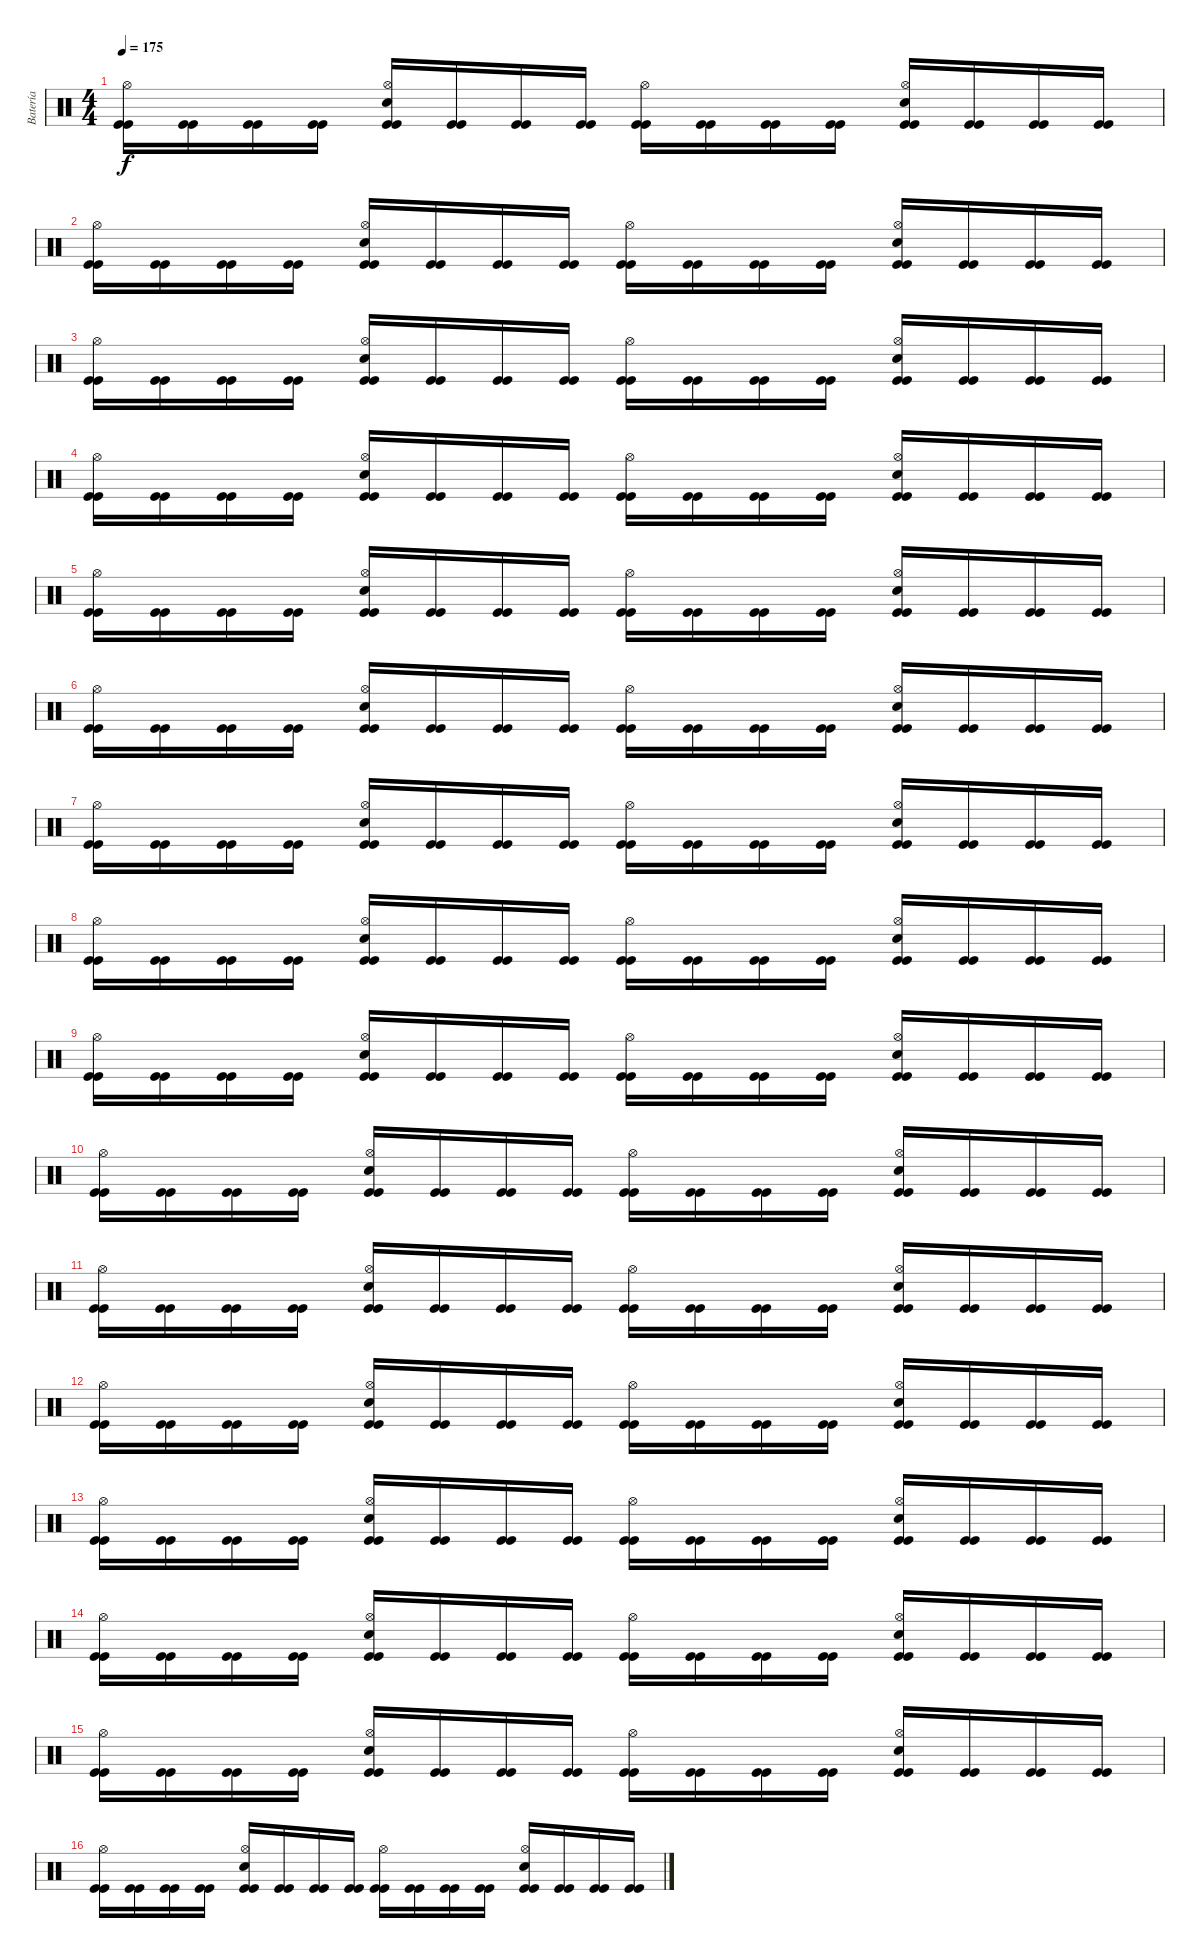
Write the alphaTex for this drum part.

\track ("Batería" "Batería") {instrument percussion}
\staff {score}
\articulation defaults
\ts (4 4)
\tempo 175
\clef neutral
\ks c
("Kick (hit)" "Kick (hit)" "Hi-Hat (open)").16{dy f} ("Kick (hit)" "Kick (hit)").16 ("Kick (hit)" "Kick (hit)").16 ("Kick (hit)" "Kick (hit)").16 ("Kick (hit)" "Kick (hit)" "Snare (hit) 2" "Hi-Hat (open)").16 ("Kick (hit)" "Kick (hit)").16 ("Kick (hit)" "Kick (hit)").16 ("Kick (hit)" "Kick (hit)").16 ("Kick (hit)" "Kick (hit)" "Hi-Hat (open)").16 ("Kick (hit)" "Kick (hit)").16 ("Kick (hit)" "Kick (hit)").16 ("Kick (hit)" "Kick (hit)").16 ("Kick (hit)" "Kick (hit)" "Snare (hit) 2" "Hi-Hat (open)").16 ("Kick (hit)" "Kick (hit)").16 ("Kick (hit)" "Kick (hit)").16 ("Kick (hit)" "Kick (hit)").16 |
("Kick (hit)" "Kick (hit)" "Hi-Hat (open)").16 ("Kick (hit)" "Kick (hit)").16 ("Kick (hit)" "Kick (hit)").16 ("Kick (hit)" "Kick (hit)").16 ("Kick (hit)" "Kick (hit)" "Snare (hit) 2" "Hi-Hat (open)").16 ("Kick (hit)" "Kick (hit)").16 ("Kick (hit)" "Kick (hit)").16 ("Kick (hit)" "Kick (hit)").16 ("Kick (hit)" "Kick (hit)" "Hi-Hat (open)").16 ("Kick (hit)" "Kick (hit)").16 ("Kick (hit)" "Kick (hit)").16 ("Kick (hit)" "Kick (hit)").16 ("Kick (hit)" "Kick (hit)" "Snare (hit) 2" "Hi-Hat (open)").16 ("Kick (hit)" "Kick (hit)").16 ("Kick (hit)" "Kick (hit)").16 ("Kick (hit)" "Kick (hit)").16 |
("Kick (hit)" "Kick (hit)" "Hi-Hat (open)").16 ("Kick (hit)" "Kick (hit)").16 ("Kick (hit)" "Kick (hit)").16 ("Kick (hit)" "Kick (hit)").16 ("Kick (hit)" "Kick (hit)" "Snare (hit) 2" "Hi-Hat (open)").16 ("Kick (hit)" "Kick (hit)").16 ("Kick (hit)" "Kick (hit)").16 ("Kick (hit)" "Kick (hit)").16 ("Kick (hit)" "Kick (hit)" "Hi-Hat (open)").16 ("Kick (hit)" "Kick (hit)").16 ("Kick (hit)" "Kick (hit)").16 ("Kick (hit)" "Kick (hit)").16 ("Kick (hit)" "Kick (hit)" "Snare (hit) 2" "Hi-Hat (open)").16 ("Kick (hit)" "Kick (hit)").16 ("Kick (hit)" "Kick (hit)").16 ("Kick (hit)" "Kick (hit)").16 |
("Kick (hit)" "Kick (hit)" "Hi-Hat (open)").16 ("Kick (hit)" "Kick (hit)").16 ("Kick (hit)" "Kick (hit)").16 ("Kick (hit)" "Kick (hit)").16 ("Kick (hit)" "Kick (hit)" "Snare (hit) 2" "Hi-Hat (open)").16 ("Kick (hit)" "Kick (hit)").16 ("Kick (hit)" "Kick (hit)").16 ("Kick (hit)" "Kick (hit)").16 ("Kick (hit)" "Kick (hit)" "Hi-Hat (open)").16 ("Kick (hit)" "Kick (hit)").16 ("Kick (hit)" "Kick (hit)").16 ("Kick (hit)" "Kick (hit)").16 ("Kick (hit)" "Kick (hit)" "Snare (hit) 2" "Hi-Hat (open)").16 ("Kick (hit)" "Kick (hit)").16 ("Kick (hit)" "Kick (hit)").16 ("Kick (hit)" "Kick (hit)").16 |
("Kick (hit)" "Kick (hit)" "Hi-Hat (open)").16 ("Kick (hit)" "Kick (hit)").16 ("Kick (hit)" "Kick (hit)").16 ("Kick (hit)" "Kick (hit)").16 ("Kick (hit)" "Kick (hit)" "Snare (hit) 2" "Hi-Hat (open)").16 ("Kick (hit)" "Kick (hit)").16 ("Kick (hit)" "Kick (hit)").16 ("Kick (hit)" "Kick (hit)").16 ("Kick (hit)" "Kick (hit)" "Hi-Hat (open)").16 ("Kick (hit)" "Kick (hit)").16 ("Kick (hit)" "Kick (hit)").16 ("Kick (hit)" "Kick (hit)").16 ("Kick (hit)" "Kick (hit)" "Snare (hit) 2" "Hi-Hat (open)").16 ("Kick (hit)" "Kick (hit)").16 ("Kick (hit)" "Kick (hit)").16 ("Kick (hit)" "Kick (hit)").16 |
("Kick (hit)" "Kick (hit)" "Hi-Hat (open)").16 ("Kick (hit)" "Kick (hit)").16 ("Kick (hit)" "Kick (hit)").16 ("Kick (hit)" "Kick (hit)").16 ("Kick (hit)" "Kick (hit)" "Snare (hit) 2" "Hi-Hat (open)").16 ("Kick (hit)" "Kick (hit)").16 ("Kick (hit)" "Kick (hit)").16 ("Kick (hit)" "Kick (hit)").16 ("Kick (hit)" "Kick (hit)" "Hi-Hat (open)").16 ("Kick (hit)" "Kick (hit)").16 ("Kick (hit)" "Kick (hit)").16 ("Kick (hit)" "Kick (hit)").16 ("Kick (hit)" "Kick (hit)" "Snare (hit) 2" "Hi-Hat (open)").16 ("Kick (hit)" "Kick (hit)").16 ("Kick (hit)" "Kick (hit)").16 ("Kick (hit)" "Kick (hit)").16 |
("Kick (hit)" "Kick (hit)" "Hi-Hat (open)").16 ("Kick (hit)" "Kick (hit)").16 ("Kick (hit)" "Kick (hit)").16 ("Kick (hit)" "Kick (hit)").16 ("Kick (hit)" "Kick (hit)" "Snare (hit) 2" "Hi-Hat (open)").16 ("Kick (hit)" "Kick (hit)").16 ("Kick (hit)" "Kick (hit)").16 ("Kick (hit)" "Kick (hit)").16 ("Kick (hit)" "Kick (hit)" "Hi-Hat (open)").16 ("Kick (hit)" "Kick (hit)").16 ("Kick (hit)" "Kick (hit)").16 ("Kick (hit)" "Kick (hit)").16 ("Kick (hit)" "Kick (hit)" "Snare (hit) 2" "Hi-Hat (open)").16 ("Kick (hit)" "Kick (hit)").16 ("Kick (hit)" "Kick (hit)").16 ("Kick (hit)" "Kick (hit)").16 |
("Kick (hit)" "Kick (hit)" "Hi-Hat (open)").16 ("Kick (hit)" "Kick (hit)").16 ("Kick (hit)" "Kick (hit)").16 ("Kick (hit)" "Kick (hit)").16 ("Kick (hit)" "Kick (hit)" "Snare (hit) 2" "Hi-Hat (open)").16 ("Kick (hit)" "Kick (hit)").16 ("Kick (hit)" "Kick (hit)").16 ("Kick (hit)" "Kick (hit)").16 ("Kick (hit)" "Kick (hit)" "Hi-Hat (open)").16 ("Kick (hit)" "Kick (hit)").16 ("Kick (hit)" "Kick (hit)").16 ("Kick (hit)" "Kick (hit)").16 ("Kick (hit)" "Kick (hit)" "Snare (hit) 2" "Hi-Hat (open)").16 ("Kick (hit)" "Kick (hit)").16 ("Kick (hit)" "Kick (hit)").16 ("Kick (hit)" "Kick (hit)").16 |
("Kick (hit)" "Kick (hit)" "Hi-Hat (open)").16 ("Kick (hit)" "Kick (hit)").16 ("Kick (hit)" "Kick (hit)").16 ("Kick (hit)" "Kick (hit)").16 ("Kick (hit)" "Kick (hit)" "Snare (hit) 2" "Hi-Hat (open)").16 ("Kick (hit)" "Kick (hit)").16 ("Kick (hit)" "Kick (hit)").16 ("Kick (hit)" "Kick (hit)").16 ("Kick (hit)" "Kick (hit)" "Hi-Hat (open)").16 ("Kick (hit)" "Kick (hit)").16 ("Kick (hit)" "Kick (hit)").16 ("Kick (hit)" "Kick (hit)").16 ("Kick (hit)" "Kick (hit)" "Snare (hit) 2" "Hi-Hat (open)").16 ("Kick (hit)" "Kick (hit)").16 ("Kick (hit)" "Kick (hit)").16 ("Kick (hit)" "Kick (hit)").16 |
("Kick (hit)" "Kick (hit)" "Hi-Hat (open)").16 ("Kick (hit)" "Kick (hit)").16 ("Kick (hit)" "Kick (hit)").16 ("Kick (hit)" "Kick (hit)").16 ("Kick (hit)" "Kick (hit)" "Snare (hit) 2" "Hi-Hat (open)").16 ("Kick (hit)" "Kick (hit)").16 ("Kick (hit)" "Kick (hit)").16 ("Kick (hit)" "Kick (hit)").16 ("Kick (hit)" "Kick (hit)" "Hi-Hat (open)").16 ("Kick (hit)" "Kick (hit)").16 ("Kick (hit)" "Kick (hit)").16 ("Kick (hit)" "Kick (hit)").16 ("Kick (hit)" "Kick (hit)" "Snare (hit) 2" "Hi-Hat (open)").16 ("Kick (hit)" "Kick (hit)").16 ("Kick (hit)" "Kick (hit)").16 ("Kick (hit)" "Kick (hit)").16 |
("Kick (hit)" "Kick (hit)" "Hi-Hat (open)").16 ("Kick (hit)" "Kick (hit)").16 ("Kick (hit)" "Kick (hit)").16 ("Kick (hit)" "Kick (hit)").16 ("Kick (hit)" "Kick (hit)" "Snare (hit) 2" "Hi-Hat (open)").16 ("Kick (hit)" "Kick (hit)").16 ("Kick (hit)" "Kick (hit)").16 ("Kick (hit)" "Kick (hit)").16 ("Kick (hit)" "Kick (hit)" "Hi-Hat (open)").16 ("Kick (hit)" "Kick (hit)").16 ("Kick (hit)" "Kick (hit)").16 ("Kick (hit)" "Kick (hit)").16 ("Kick (hit)" "Kick (hit)" "Snare (hit) 2" "Hi-Hat (open)").16 ("Kick (hit)" "Kick (hit)").16 ("Kick (hit)" "Kick (hit)").16 ("Kick (hit)" "Kick (hit)").16 |
("Kick (hit)" "Kick (hit)" "Hi-Hat (open)").16 ("Kick (hit)" "Kick (hit)").16 ("Kick (hit)" "Kick (hit)").16 ("Kick (hit)" "Kick (hit)").16 ("Kick (hit)" "Kick (hit)" "Snare (hit) 2" "Hi-Hat (open)").16 ("Kick (hit)" "Kick (hit)").16 ("Kick (hit)" "Kick (hit)").16 ("Kick (hit)" "Kick (hit)").16 ("Kick (hit)" "Kick (hit)" "Hi-Hat (open)").16 ("Kick (hit)" "Kick (hit)").16 ("Kick (hit)" "Kick (hit)").16 ("Kick (hit)" "Kick (hit)").16 ("Kick (hit)" "Kick (hit)" "Snare (hit) 2" "Hi-Hat (open)").16 ("Kick (hit)" "Kick (hit)").16 ("Kick (hit)" "Kick (hit)").16 ("Kick (hit)" "Kick (hit)").16 |
("Kick (hit)" "Kick (hit)" "Hi-Hat (open)").16 ("Kick (hit)" "Kick (hit)").16 ("Kick (hit)" "Kick (hit)").16 ("Kick (hit)" "Kick (hit)").16 ("Kick (hit)" "Kick (hit)" "Snare (hit) 2" "Hi-Hat (open)").16 ("Kick (hit)" "Kick (hit)").16 ("Kick (hit)" "Kick (hit)").16 ("Kick (hit)" "Kick (hit)").16 ("Kick (hit)" "Kick (hit)" "Hi-Hat (open)").16 ("Kick (hit)" "Kick (hit)").16 ("Kick (hit)" "Kick (hit)").16 ("Kick (hit)" "Kick (hit)").16 ("Kick (hit)" "Kick (hit)" "Snare (hit) 2" "Hi-Hat (open)").16 ("Kick (hit)" "Kick (hit)").16 ("Kick (hit)" "Kick (hit)").16 ("Kick (hit)" "Kick (hit)").16 |
("Kick (hit)" "Kick (hit)" "Hi-Hat (open)").16 ("Kick (hit)" "Kick (hit)").16 ("Kick (hit)" "Kick (hit)").16 ("Kick (hit)" "Kick (hit)").16 ("Kick (hit)" "Kick (hit)" "Snare (hit) 2" "Hi-Hat (open)").16 ("Kick (hit)" "Kick (hit)").16 ("Kick (hit)" "Kick (hit)").16 ("Kick (hit)" "Kick (hit)").16 ("Kick (hit)" "Kick (hit)" "Hi-Hat (open)").16 ("Kick (hit)" "Kick (hit)").16 ("Kick (hit)" "Kick (hit)").16 ("Kick (hit)" "Kick (hit)").16 ("Kick (hit)" "Kick (hit)" "Snare (hit) 2" "Hi-Hat (open)").16 ("Kick (hit)" "Kick (hit)").16 ("Kick (hit)" "Kick (hit)").16 ("Kick (hit)" "Kick (hit)").16 |
("Kick (hit)" "Kick (hit)" "Hi-Hat (open)").16 ("Kick (hit)" "Kick (hit)").16 ("Kick (hit)" "Kick (hit)").16 ("Kick (hit)" "Kick (hit)").16 ("Kick (hit)" "Kick (hit)" "Snare (hit) 2" "Hi-Hat (open)").16 ("Kick (hit)" "Kick (hit)").16 ("Kick (hit)" "Kick (hit)").16 ("Kick (hit)" "Kick (hit)").16 ("Kick (hit)" "Kick (hit)" "Hi-Hat (open)").16 ("Kick (hit)" "Kick (hit)").16 ("Kick (hit)" "Kick (hit)").16 ("Kick (hit)" "Kick (hit)").16 ("Kick (hit)" "Kick (hit)" "Snare (hit) 2" "Hi-Hat (open)").16 ("Kick (hit)" "Kick (hit)").16 ("Kick (hit)" "Kick (hit)").16 ("Kick (hit)" "Kick (hit)").16 |
("Kick (hit)" "Kick (hit)" "Hi-Hat (open)").16 ("Kick (hit)" "Kick (hit)").16 ("Kick (hit)" "Kick (hit)").16 ("Kick (hit)" "Kick (hit)").16 ("Kick (hit)" "Kick (hit)" "Snare (hit) 2" "Hi-Hat (open)").16 ("Kick (hit)" "Kick (hit)").16 ("Kick (hit)" "Kick (hit)").16 ("Kick (hit)" "Kick (hit)").16 ("Kick (hit)" "Kick (hit)" "Hi-Hat (open)").16 ("Kick (hit)" "Kick (hit)").16 ("Kick (hit)" "Kick (hit)").16 ("Kick (hit)" "Kick (hit)").16 ("Kick (hit)" "Kick (hit)" "Snare (hit) 2" "Hi-Hat (open)").16 ("Kick (hit)" "Kick (hit)").16 ("Kick (hit)" "Kick (hit)").16 ("Kick (hit)" "Kick (hit)").16
